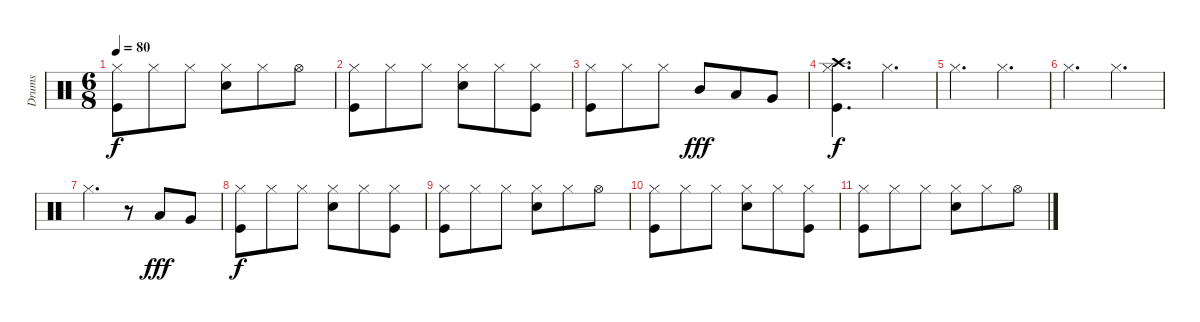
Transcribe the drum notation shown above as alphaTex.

\track ("Drums" "Drums") {instrument percussion}
\staff {score}
\articulation defaults
\ts (6 8)
\tempo 80
\clef neutral
\ks c
("Hi-Hat (closed)" "Kick (hit)").8{dy f} "Hi-Hat (closed)".8 "Hi-Hat (closed)".8 ("Hi-Hat (closed)" "Electric Snare (hit)").8 "Hi-Hat (closed)".8 "Hi-Hat (open)".8 |
("Hi-Hat (closed)" "Kick (hit)").8 "Hi-Hat (closed)".8 "Hi-Hat (closed)".8 ("Hi-Hat (closed)" "Electric Snare (hit)").8 "Hi-Hat (closed)".8 ("Hi-Hat (closed)" "Kick (hit)").8 |
("Hi-Hat (closed)" "Kick (hit)").8 "Hi-Hat (closed)".8 "Hi-Hat (closed)".8 "Mid Tom (hit)".8{dy fff} "Low Tom (hit)".8 "Very Low Tom (hit)".8 |
("Hi-Hat (closed)" "Kick (hit)" "Crash high (hit)").4{d dy f} "Hi-Hat (closed)".4{d} |
"Hi-Hat (closed)".4{d} "Hi-Hat (closed)".4{d} |
"Hi-Hat (closed)".4{d} "Hi-Hat (closed)".4{d} |
"Hi-Hat (closed)".4{d} r.8 "Low Tom (hit)".8{dy fff} "Very Low Tom (hit)".8 |
("Hi-Hat (closed)" "Kick (hit)").8{dy f} "Hi-Hat (closed)".8 "Hi-Hat (closed)".8 ("Hi-Hat (closed)" "Electric Snare (hit)").8 "Hi-Hat (closed)".8 ("Hi-Hat (closed)" "Kick (hit)").8 |
("Hi-Hat (closed)" "Kick (hit)").8 "Hi-Hat (closed)".8 "Hi-Hat (closed)".8 ("Hi-Hat (closed)" "Electric Snare (hit)").8 "Hi-Hat (closed)".8 "Hi-Hat (open)".8 |
("Hi-Hat (closed)" "Kick (hit)").8{volume 0} "Hi-Hat (closed)".8 "Hi-Hat (closed)".8 ("Hi-Hat (closed)" "Electric Snare (hit)").8 "Hi-Hat (closed)".8 ("Hi-Hat (closed)" "Kick (hit)").8 |
("Hi-Hat (closed)" "Kick (hit)").8 "Hi-Hat (closed)".8 "Hi-Hat (closed)".8 ("Hi-Hat (closed)" "Electric Snare (hit)").8 "Hi-Hat (closed)".8 "Hi-Hat (open)".8
